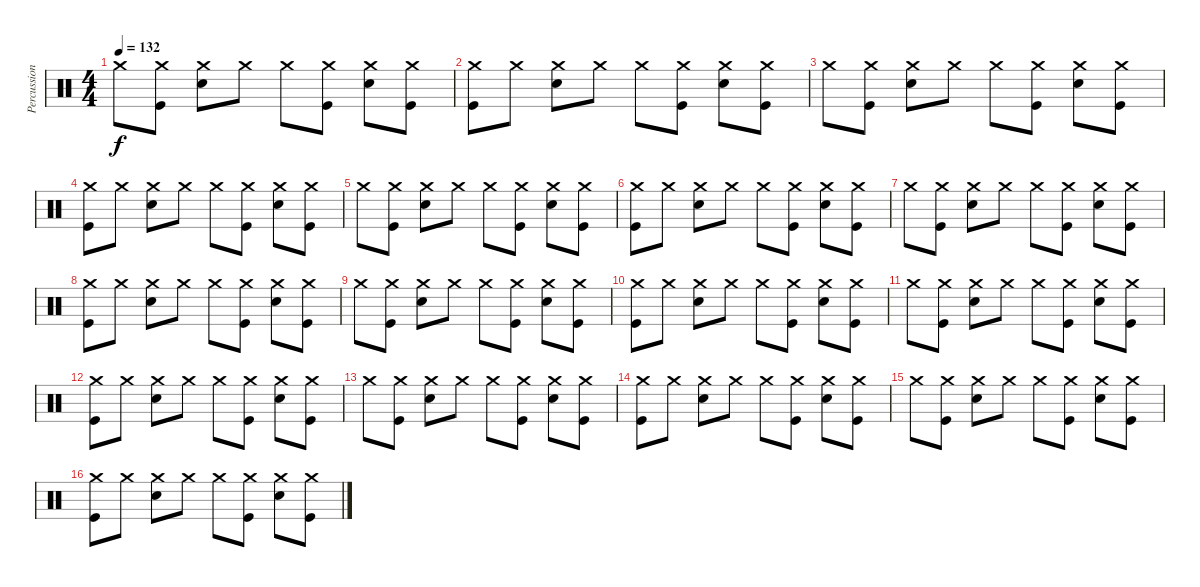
\track ("Percussion" "Percussion") {instrument percussion}
\staff {score}
\articulation defaults
\ts (4 4)
\tempo 132
\clef neutral
\ks c "Crash medium (hit)".8{dy f}
("Crash medium (hit)" "Kick (hit)").8 ("Crash medium (hit)" "Snare (hit) 2").8 "Crash medium (hit)".8 "Crash medium (hit)".8 ("Crash medium (hit)" "Kick (hit)").8 ("Crash medium (hit)" "Snare (hit) 2").8 ("Crash medium (hit)" "Kick (hit)").8 |
("Crash medium (hit)" "Kick (hit)").8 "Crash medium (hit)".8 ("Crash medium (hit)" "Snare (hit) 2").8 "Crash medium (hit)".8 "Crash medium (hit)".8 ("Crash medium (hit)" "Kick (hit)").8 ("Crash medium (hit)" "Snare (hit) 2").8 ("Crash medium (hit)" "Kick (hit)").8 |
"Crash medium (hit)".8 ("Crash medium (hit)" "Kick (hit)").8 ("Crash medium (hit)" "Snare (hit) 2").8 "Crash medium (hit)".8 "Crash medium (hit)".8 ("Crash medium (hit)" "Kick (hit)").8 ("Crash medium (hit)" "Snare (hit) 2").8 ("Crash medium (hit)" "Kick (hit)").8 |
("Crash medium (hit)" "Kick (hit)").8 "Crash medium (hit)".8 ("Crash medium (hit)" "Snare (hit) 2").8 "Crash medium (hit)".8 "Crash medium (hit)".8 ("Crash medium (hit)" "Kick (hit)").8 ("Crash medium (hit)" "Snare (hit) 2").8 ("Crash medium (hit)" "Kick (hit)").8 |
"Crash medium (hit)".8 ("Crash medium (hit)" "Kick (hit)").8 ("Crash medium (hit)" "Snare (hit) 2").8 "Crash medium (hit)".8 "Crash medium (hit)".8 ("Crash medium (hit)" "Kick (hit)").8 ("Crash medium (hit)" "Snare (hit) 2").8 ("Crash medium (hit)" "Kick (hit)").8 |
("Crash medium (hit)" "Kick (hit)").8 "Crash medium (hit)".8 ("Crash medium (hit)" "Snare (hit) 2").8 "Crash medium (hit)".8 "Crash medium (hit)".8 ("Crash medium (hit)" "Kick (hit)").8 ("Crash medium (hit)" "Snare (hit) 2").8 ("Crash medium (hit)" "Kick (hit)").8 |
"Crash medium (hit)".8 ("Crash medium (hit)" "Kick (hit)").8 ("Crash medium (hit)" "Snare (hit) 2").8 "Crash medium (hit)".8 "Crash medium (hit)".8 ("Crash medium (hit)" "Kick (hit)").8 ("Crash medium (hit)" "Snare (hit) 2").8 ("Crash medium (hit)" "Kick (hit)").8 |
("Crash medium (hit)" "Kick (hit)").8 "Crash medium (hit)".8 ("Crash medium (hit)" "Snare (hit) 2").8 "Crash medium (hit)".8 "Crash medium (hit)".8 ("Crash medium (hit)" "Kick (hit)").8 ("Crash medium (hit)" "Snare (hit) 2").8 ("Crash medium (hit)" "Kick (hit)").8 |
"Crash medium (hit)".8 ("Crash medium (hit)" "Kick (hit)").8 ("Crash medium (hit)" "Snare (hit) 2").8 "Crash medium (hit)".8 "Crash medium (hit)".8 ("Crash medium (hit)" "Kick (hit)").8 ("Crash medium (hit)" "Snare (hit) 2").8 ("Crash medium (hit)" "Kick (hit)").8 |
("Crash medium (hit)" "Kick (hit)").8 "Crash medium (hit)".8 ("Crash medium (hit)" "Snare (hit) 2").8 "Crash medium (hit)".8 "Crash medium (hit)".8 ("Crash medium (hit)" "Kick (hit)").8 ("Crash medium (hit)" "Snare (hit) 2").8 ("Crash medium (hit)" "Kick (hit)").8 |
"Crash medium (hit)".8 ("Crash medium (hit)" "Kick (hit)").8 ("Crash medium (hit)" "Snare (hit) 2").8 "Crash medium (hit)".8 "Crash medium (hit)".8 ("Crash medium (hit)" "Kick (hit)").8 ("Crash medium (hit)" "Snare (hit) 2").8 ("Crash medium (hit)" "Kick (hit)").8 |
("Crash medium (hit)" "Kick (hit)").8 "Crash medium (hit)".8 ("Crash medium (hit)" "Snare (hit) 2").8 "Crash medium (hit)".8 "Crash medium (hit)".8 ("Crash medium (hit)" "Kick (hit)").8 ("Crash medium (hit)" "Snare (hit) 2").8 ("Crash medium (hit)" "Kick (hit)").8 |
"Crash medium (hit)".8 ("Crash medium (hit)" "Kick (hit)").8 ("Crash medium (hit)" "Snare (hit) 2").8 "Crash medium (hit)".8 "Crash medium (hit)".8 ("Crash medium (hit)" "Kick (hit)").8 ("Crash medium (hit)" "Snare (hit) 2").8 ("Crash medium (hit)" "Kick (hit)").8 |
("Crash medium (hit)" "Kick (hit)").8 "Crash medium (hit)".8 ("Crash medium (hit)" "Snare (hit) 2").8 "Crash medium (hit)".8 "Crash medium (hit)".8 ("Crash medium (hit)" "Kick (hit)").8 ("Crash medium (hit)" "Snare (hit) 2").8 ("Crash medium (hit)" "Kick (hit)").8 |
"Crash medium (hit)".8 ("Crash medium (hit)" "Kick (hit)").8 ("Crash medium (hit)" "Snare (hit) 2").8 "Crash medium (hit)".8 "Crash medium (hit)".8 ("Crash medium (hit)" "Kick (hit)").8 ("Crash medium (hit)" "Snare (hit) 2").8 ("Crash medium (hit)" "Kick (hit)").8 |
("Crash medium (hit)" "Kick (hit)").8 "Crash medium (hit)".8 ("Crash medium (hit)" "Snare (hit) 2").8 "Crash medium (hit)".8 "Crash medium (hit)".8 ("Crash medium (hit)" "Kick (hit)").8 ("Crash medium (hit)" "Snare (hit) 2").8 ("Crash medium (hit)" "Kick (hit)").8
